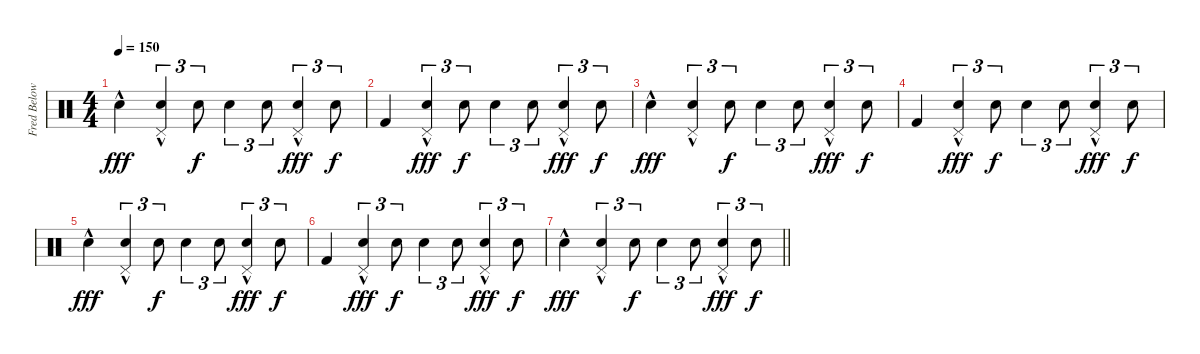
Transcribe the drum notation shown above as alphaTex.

\track ("Fred Below" "Fred Below") {instrument percussion}
\staff {score}
\articulation defaults
\ts (4 4)
\tempo 150
\clef neutral
\ks c "Snare (hit) 2"{hac}.4{dy fff volume 7}
("Snare (hit) 2"{hac} "Pedal Hi-Hat (hit)").4{tu (3 2)} "Snare (hit) 2".8{tu (3 2) dy f} "Electric Snare (hit)".4{tu (3 2)} "Snare (hit) 2".8{tu (3 2)} ("Hand Clap (hit)"{hac} "Pedal Hi-Hat (hit)").4{tu (3 2) dy fff} "Snare (hit) 2".8{tu (3 2) dy f} |
"Kick (hit) 2".4{volume 6} ("Snare (hit) 2"{hac} "Pedal Hi-Hat (hit)").4{tu (3 2) dy fff} "Snare (hit) 2".8{tu (3 2) dy f} "Electric Snare (hit)".4{tu (3 2)} "Snare (hit) 2".8{tu (3 2)} ("Hand Clap (hit)"{hac} "Pedal Hi-Hat (hit)").4{tu (3 2) dy fff} "Snare (hit) 2".8{tu (3 2) dy f} |
"Snare (hit) 2"{hac}.4{dy fff volume 5} ("Snare (hit) 2"{hac} "Pedal Hi-Hat (hit)").4{tu (3 2)} "Snare (hit) 2".8{tu (3 2) dy f} "Electric Snare (hit)".4{tu (3 2)} "Snare (hit) 2".8{tu (3 2)} ("Hand Clap (hit)"{hac} "Pedal Hi-Hat (hit)").4{tu (3 2) dy fff} "Snare (hit) 2".8{tu (3 2) dy f} |
"Kick (hit) 2".4{volume 3} ("Snare (hit) 2"{hac} "Pedal Hi-Hat (hit)").4{tu (3 2) dy fff} "Snare (hit) 2".8{tu (3 2) dy f} "Electric Snare (hit)".4{tu (3 2)} "Snare (hit) 2".8{tu (3 2)} ("Hand Clap (hit)"{hac} "Pedal Hi-Hat (hit)").4{tu (3 2) dy fff} "Snare (hit) 2".8{tu (3 2) dy f} |
"Snare (hit) 2"{hac}.4{dy fff volume 2} ("Snare (hit) 2"{hac} "Pedal Hi-Hat (hit)").4{tu (3 2)} "Snare (hit) 2".8{tu (3 2) dy f} "Electric Snare (hit)".4{tu (3 2)} "Snare (hit) 2".8{tu (3 2)} ("Hand Clap (hit)"{hac} "Pedal Hi-Hat (hit)").4{tu (3 2) dy fff} "Snare (hit) 2".8{tu (3 2) dy f} |
"Kick (hit) 2".4{volume 1} ("Snare (hit) 2"{hac} "Pedal Hi-Hat (hit)").4{tu (3 2) dy fff} "Snare (hit) 2".8{tu (3 2) dy f} "Electric Snare (hit)".4{tu (3 2)} "Snare (hit) 2".8{tu (3 2)} ("Hand Clap (hit)"{hac} "Pedal Hi-Hat (hit)").4{tu (3 2) dy fff} "Snare (hit) 2".8{tu (3 2) dy f} |
\barLineRight lightlight "Snare (hit) 2"{hac}.4{dy fff volume 0}
("Snare (hit) 2"{hac} "Pedal Hi-Hat (hit)").4{tu (3 2)} "Snare (hit) 2".8{tu (3 2) dy f} "Electric Snare (hit)".4{tu (3 2)} "Snare (hit) 2".8{tu (3 2)} ("Hand Clap (hit)"{hac} "Pedal Hi-Hat (hit)").4{tu (3 2) dy fff} "Snare (hit) 2".8{tu (3 2) dy f}
